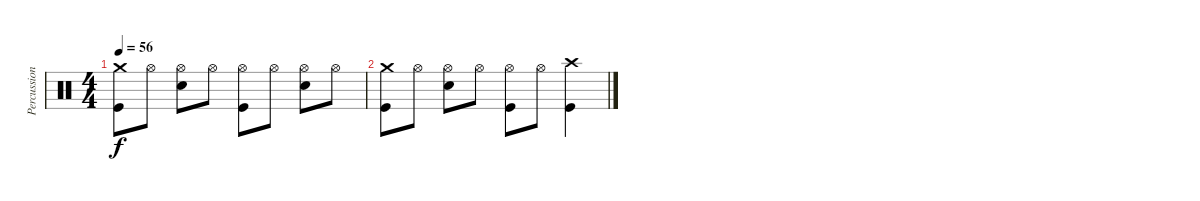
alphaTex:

\track ("Percussion" "Percussion") {instrument percussion}
\staff {score}
\articulation defaults
\ts (4 4)
\tempo 56
\clef neutral
\ks c
("Crash medium (hit)" "Kick (hit)").8{dy f} "Hi-Hat (open)".8 ("Hi-Hat (open)" "Electric Snare (hit)").8 "Hi-Hat (open)".8 ("Hi-Hat (open)" "Kick (hit)").8 "Hi-Hat (open)".8 ("Hi-Hat (open)" "Electric Snare (hit)").8 "Hi-Hat (open)".8 |
("Crash medium (hit)" "Kick (hit)").8 "Hi-Hat (open)".8 ("Hi-Hat (open)" "Electric Snare (hit)").8 "Hi-Hat (open)".8 ("Hi-Hat (open)" "Kick (hit)").8 "Hi-Hat (open)".8 ("Crash high (hit)" "Kick (hit)").4
